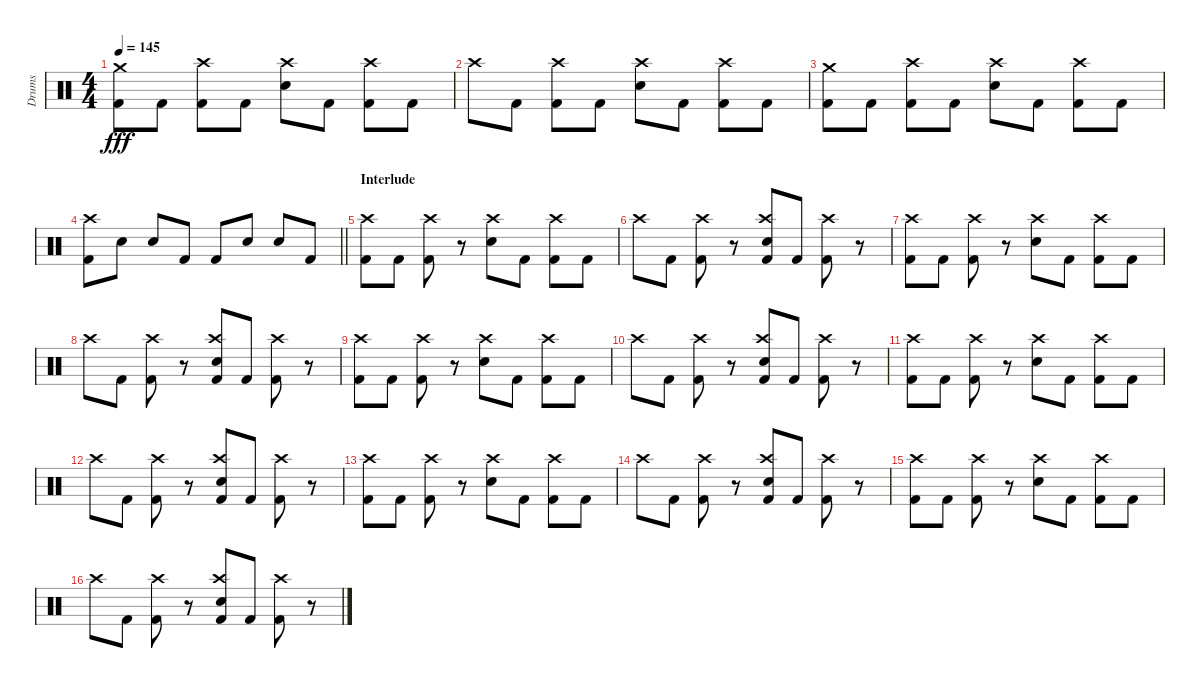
\track ("Drums" "Drums") {instrument percussion}
\staff {score}
\articulation defaults
\ts (4 4)
\tempo 145
\clef neutral
\ks c
("Crash medium (hit)" "Kick (hit) 2").8{dy fff} "Kick (hit) 2".8 ("Crash high (hit)" "Kick (hit) 2").8 "Kick (hit) 2".8 ("Crash high (hit)" "Electric Snare (hit)").8 "Kick (hit) 2".8 ("Crash high (hit)" "Kick (hit) 2").8 "Kick (hit) 2".8 |
"Crash high (hit)".8 "Kick (hit) 2".8 ("Crash high (hit)" "Kick (hit) 2").8 "Kick (hit) 2".8 ("Crash high (hit)" "Electric Snare (hit)").8 "Kick (hit) 2".8 ("Crash high (hit)" "Kick (hit) 2").8 "Kick (hit) 2".8 |
("Crash medium (hit)" "Kick (hit) 2").8 "Kick (hit) 2".8 ("Crash high (hit)" "Kick (hit) 2").8 "Kick (hit) 2".8 ("Crash high (hit)" "Electric Snare (hit)").8 "Kick (hit) 2".8 ("Crash high (hit)" "Kick (hit) 2").8 "Kick (hit) 2".8 |
\barLineRight lightlight
("Crash high (hit)" "Kick (hit) 2").8 "Electric Snare (hit)".8 "Electric Snare (hit)".8 "Kick (hit) 2".8 "Kick (hit) 2".8 "Electric Snare (hit)".8 "Electric Snare (hit)".8 "Kick (hit) 2".8 |
\section ("" "Interlude")
("Crash high (hit)" "Kick (hit) 2").8 "Kick (hit) 2".8 ("Crash high (hit)" "Kick (hit) 2").8 r.8 ("Crash high (hit)" "Electric Snare (hit)").8 "Kick (hit) 2".8 ("Crash high (hit)" "Kick (hit) 2").8 "Kick (hit) 2".8 |
"Crash high (hit)".8 "Kick (hit) 2".8 ("Crash high (hit)" "Kick (hit) 2").8 r.8 ("Crash high (hit)" "Electric Snare (hit)" "Kick (hit) 2").8 "Kick (hit) 2".8 ("Crash high (hit)" "Kick (hit) 2").8 r.8 |
("Crash high (hit)" "Kick (hit) 2").8 "Kick (hit) 2".8 ("Crash high (hit)" "Kick (hit) 2").8 r.8 ("Crash high (hit)" "Electric Snare (hit)").8 "Kick (hit) 2".8 ("Crash high (hit)" "Kick (hit) 2").8 "Kick (hit) 2".8 |
"Crash high (hit)".8 "Kick (hit) 2".8 ("Crash high (hit)" "Kick (hit) 2").8 r.8 ("Crash high (hit)" "Electric Snare (hit)" "Kick (hit) 2").8 "Kick (hit) 2".8 ("Crash high (hit)" "Kick (hit) 2").8 r.8 |
("Crash high (hit)" "Kick (hit) 2").8 "Kick (hit) 2".8 ("Crash high (hit)" "Kick (hit) 2").8 r.8 ("Crash high (hit)" "Electric Snare (hit)").8 "Kick (hit) 2".8 ("Crash high (hit)" "Kick (hit) 2").8 "Kick (hit) 2".8 |
"Crash high (hit)".8 "Kick (hit) 2".8 ("Crash high (hit)" "Kick (hit) 2").8 r.8 ("Crash high (hit)" "Electric Snare (hit)" "Kick (hit) 2").8 "Kick (hit) 2".8 ("Crash high (hit)" "Kick (hit) 2").8 r.8 |
("Crash high (hit)" "Kick (hit) 2").8 "Kick (hit) 2".8 ("Crash high (hit)" "Kick (hit) 2").8 r.8 ("Crash high (hit)" "Electric Snare (hit)").8 "Kick (hit) 2".8 ("Crash high (hit)" "Kick (hit) 2").8 "Kick (hit) 2".8 |
"Crash high (hit)".8 "Kick (hit) 2".8 ("Crash high (hit)" "Kick (hit) 2").8 r.8 ("Crash high (hit)" "Electric Snare (hit)" "Kick (hit) 2").8 "Kick (hit) 2".8 ("Crash high (hit)" "Kick (hit) 2").8 r.8 |
("Crash high (hit)" "Kick (hit) 2").8 "Kick (hit) 2".8 ("Crash high (hit)" "Kick (hit) 2").8 r.8 ("Crash high (hit)" "Electric Snare (hit)").8 "Kick (hit) 2".8 ("Crash high (hit)" "Kick (hit) 2").8 "Kick (hit) 2".8 |
"Crash high (hit)".8 "Kick (hit) 2".8 ("Crash high (hit)" "Kick (hit) 2").8 r.8 ("Crash high (hit)" "Electric Snare (hit)" "Kick (hit) 2").8 "Kick (hit) 2".8 ("Crash high (hit)" "Kick (hit) 2").8 r.8 |
("Crash high (hit)" "Kick (hit) 2").8 "Kick (hit) 2".8 ("Crash high (hit)" "Kick (hit) 2").8 r.8 ("Crash high (hit)" "Electric Snare (hit)").8 "Kick (hit) 2".8 ("Crash high (hit)" "Kick (hit) 2").8 "Kick (hit) 2".8 |
"Crash high (hit)".8 "Kick (hit) 2".8 ("Crash high (hit)" "Kick (hit) 2").8 r.8 ("Crash high (hit)" "Electric Snare (hit)" "Kick (hit) 2").8 "Kick (hit) 2".8 ("Crash high (hit)" "Kick (hit) 2").8 r.8
